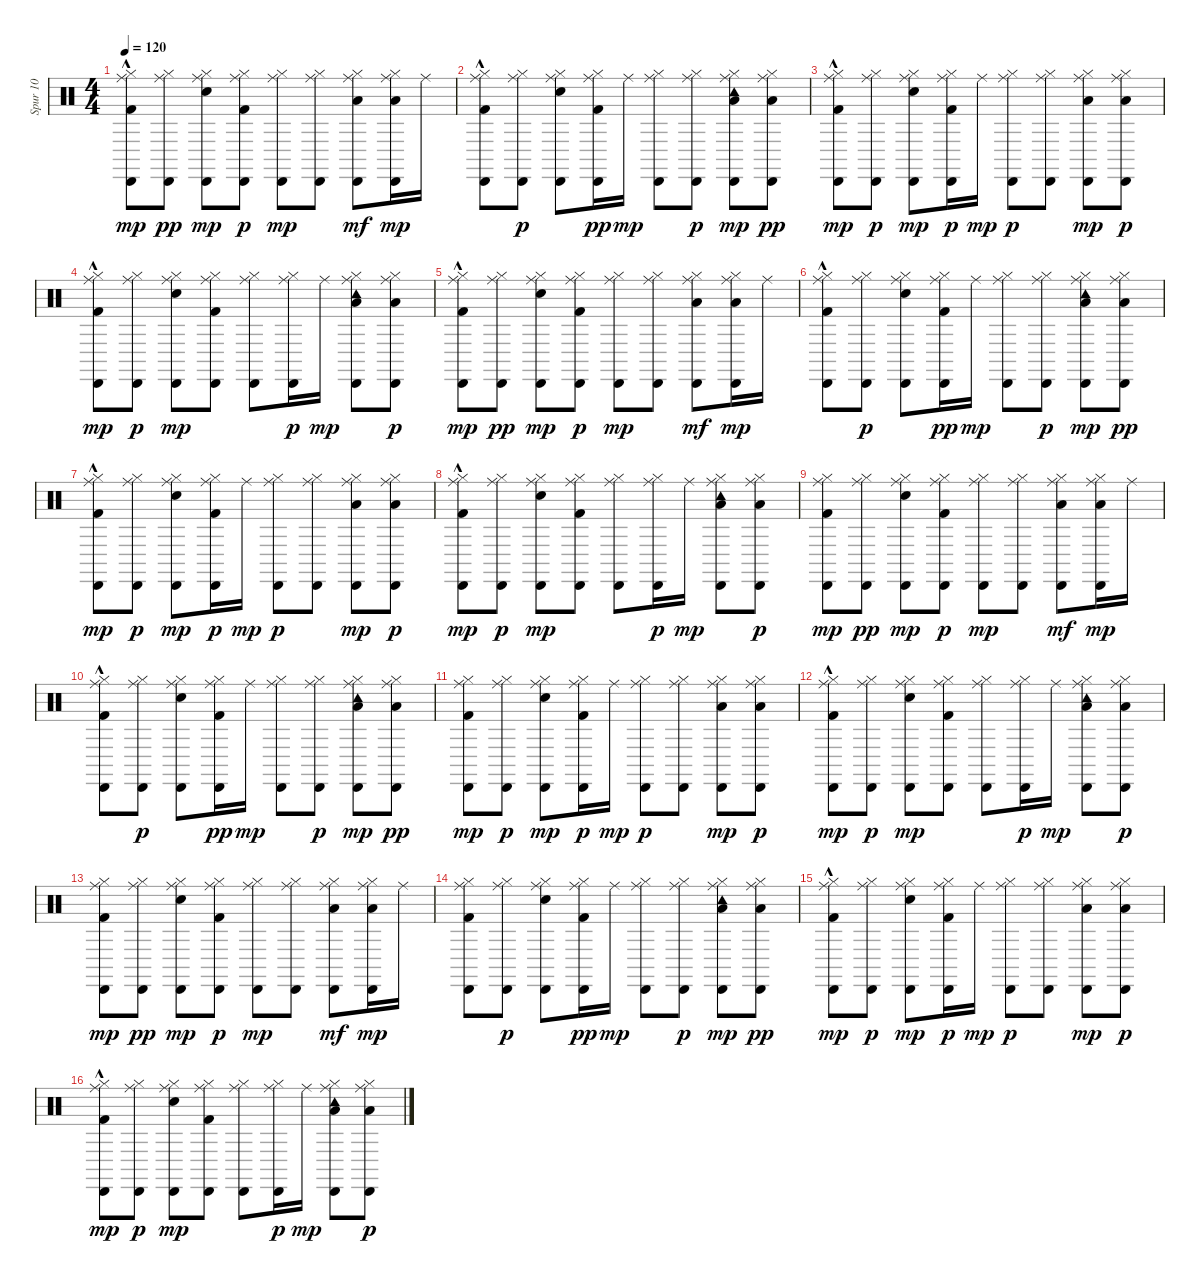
\track ("Spur 10" "Spur 10") {instrument percussion}
\staff {score}
\articulation defaults
\ts (4 4)
\tempo 120
\clef neutral
\ks c
("Kick (hit) 2"{hac} "Hi-Hat (closed)" "Cabasa (hit)" "Ride (middle)").8{dy mp} ("Hi-Hat (closed)" "Cabasa (hit)" "Ride (middle)").8{dy pp} ("Snare (hit) 2" "Hi-Hat (closed)" "Cabasa (hit)" "Ride (middle)").8{dy mp} ("Kick (hit) 2" "Hi-Hat (closed)" "Cabasa (hit)" "Ride (middle)").8{dy p} ("Hi-Hat (closed)" "Cabasa (hit)" "Ride (middle)").8{dy mp} ("Hi-Hat (closed)" "Cabasa (hit)" "Ride (middle)").8 ("Low Floor Tom (hit)" "Hi-Hat (closed)" "Cabasa (hit)" "Ride (middle)").8{dy mf} ("Low Floor Tom (hit)" "Hi-Hat (closed)" "Cabasa (hit)" "Ride (middle)").16{dy mp} "Ride (middle)".16 |
("Kick (hit) 2"{hac} "Hi-Hat (closed)" "Cabasa (hit)" "Ride (middle)").8 ("Hi-Hat (closed)" "Cabasa (hit)" "Ride (middle)").8{dy p} ("Snare (hit) 2" "Hi-Hat (closed)" "Cabasa (hit)" "Ride (middle)").8 ("Kick (hit) 2" "Hi-Hat (closed)" "Cabasa (hit)" "Ride (middle)").16{dy pp} "Ride (middle)".16{dy mp} ("Hi-Hat (closed)" "Cabasa (hit)" "Ride (middle)").8 ("Hi-Hat (closed)" "Cabasa (hit)" "Ride (middle)").8{dy p} ("Low Tom (hit)" "Hi-Hat (closed)" "Cabasa (hit)" "Tambourine (hit)" "Ride (middle)").8{dy mp} ("Low Tom (hit)" "Hi-Hat (closed)" "Cabasa (hit)" "Ride (middle)").8{dy pp} |
("Kick (hit) 2"{hac} "Hi-Hat (closed)" "Cabasa (hit)" "Ride (middle)").8{dy mp} ("Hi-Hat (closed)" "Cabasa (hit)" "Ride (middle)").8{dy p} ("Snare (hit) 2" "Hi-Hat (closed)" "Cabasa (hit)" "Ride (middle)").8{dy mp} ("Kick (hit) 2" "Hi-Hat (closed)" "Cabasa (hit)" "Ride (middle)").16{dy p} "Ride (middle)".16{dy mp} ("Hi-Hat (closed)" "Cabasa (hit)" "Ride (middle)").8{dy p} ("Hi-Hat (closed)" "Cabasa (hit)" "Ride (middle)").8 ("Low Floor Tom (hit)" "Hi-Hat (closed)" "Cabasa (hit)" "Ride (middle)").8{dy mp} ("Low Floor Tom (hit)" "Hi-Hat (closed)" "Cabasa (hit)" "Ride (middle)").8{dy p} |
("Kick (hit) 2"{hac} "Hi-Hat (closed)" "Cabasa (hit)" "Ride (middle)").8{dy mp} ("Hi-Hat (closed)" "Cabasa (hit)" "Ride (middle)").8{dy p} ("Snare (hit) 2" "Hi-Hat (closed)" "Cabasa (hit)" "Ride (middle)").8{dy mp} ("Kick (hit) 2" "Hi-Hat (closed)" "Cabasa (hit)" "Ride (middle)").8 ("Hi-Hat (closed)" "Cabasa (hit)" "Ride (middle)").8 ("Hi-Hat (closed)" "Cabasa (hit)" "Ride (middle)").16{dy p} "Ride (middle)".16{dy mp} ("Low Tom (hit)" "Hi-Hat (closed)" "Cabasa (hit)" "Tambourine (hit)" "Ride (middle)").8 ("Low Tom (hit)" "Hi-Hat (closed)" "Cabasa (hit)" "Ride (middle)").8{dy p} |
("Kick (hit) 2"{hac} "Hi-Hat (closed)" "Cabasa (hit)" "Ride (middle)").8{dy mp} ("Hi-Hat (closed)" "Cabasa (hit)" "Ride (middle)").8{dy pp} ("Snare (hit) 2" "Hi-Hat (closed)" "Cabasa (hit)" "Ride (middle)").8{dy mp} ("Kick (hit) 2" "Hi-Hat (closed)" "Cabasa (hit)" "Ride (middle)").8{dy p} ("Hi-Hat (closed)" "Cabasa (hit)" "Ride (middle)").8{dy mp} ("Hi-Hat (closed)" "Cabasa (hit)" "Ride (middle)").8 ("Low Floor Tom (hit)" "Hi-Hat (closed)" "Cabasa (hit)" "Ride (middle)").8{dy mf} ("Low Floor Tom (hit)" "Hi-Hat (closed)" "Cabasa (hit)" "Ride (middle)").16{dy mp} "Ride (middle)".16 |
("Kick (hit) 2"{hac} "Hi-Hat (closed)" "Cabasa (hit)" "Ride (middle)").8 ("Hi-Hat (closed)" "Cabasa (hit)" "Ride (middle)").8{dy p} ("Snare (hit) 2" "Hi-Hat (closed)" "Cabasa (hit)" "Ride (middle)").8 ("Kick (hit) 2" "Hi-Hat (closed)" "Cabasa (hit)" "Ride (middle)").16{dy pp} "Ride (middle)".16{dy mp} ("Hi-Hat (closed)" "Cabasa (hit)" "Ride (middle)").8 ("Hi-Hat (closed)" "Cabasa (hit)" "Ride (middle)").8{dy p} ("Low Tom (hit)" "Hi-Hat (closed)" "Cabasa (hit)" "Tambourine (hit)" "Ride (middle)").8{dy mp} ("Low Tom (hit)" "Hi-Hat (closed)" "Cabasa (hit)" "Ride (middle)").8{dy pp} |
("Kick (hit) 2"{hac} "Hi-Hat (closed)" "Cabasa (hit)" "Ride (middle)").8{dy mp} ("Hi-Hat (closed)" "Cabasa (hit)" "Ride (middle)").8{dy p} ("Snare (hit) 2" "Hi-Hat (closed)" "Cabasa (hit)" "Ride (middle)").8{dy mp} ("Kick (hit) 2" "Hi-Hat (closed)" "Cabasa (hit)" "Ride (middle)").16{dy p} "Ride (middle)".16{dy mp} ("Hi-Hat (closed)" "Cabasa (hit)" "Ride (middle)").8{dy p} ("Hi-Hat (closed)" "Cabasa (hit)" "Ride (middle)").8 ("Low Floor Tom (hit)" "Hi-Hat (closed)" "Cabasa (hit)" "Ride (middle)").8{dy mp} ("Low Floor Tom (hit)" "Hi-Hat (closed)" "Cabasa (hit)" "Ride (middle)").8{dy p} |
("Kick (hit) 2"{hac} "Hi-Hat (closed)" "Cabasa (hit)" "Ride (middle)").8{dy mp} ("Hi-Hat (closed)" "Cabasa (hit)" "Ride (middle)").8{dy p} ("Snare (hit) 2" "Hi-Hat (closed)" "Cabasa (hit)" "Ride (middle)").8{dy mp} ("Kick (hit) 2" "Hi-Hat (closed)" "Cabasa (hit)" "Ride (middle)").8 ("Hi-Hat (closed)" "Cabasa (hit)" "Ride (middle)").8 ("Hi-Hat (closed)" "Cabasa (hit)" "Ride (middle)").16{dy p} "Ride (middle)".16{dy mp} ("Low Tom (hit)" "Hi-Hat (closed)" "Cabasa (hit)" "Tambourine (hit)" "Ride (middle)").8 ("Low Tom (hit)" "Hi-Hat (closed)" "Cabasa (hit)" "Ride (middle)").8{dy p} |
("Kick (hit) 2" "Hi-Hat (closed)" "Cabasa (hit)" "Ride (middle)").8{dy mp} ("Hi-Hat (closed)" "Cabasa (hit)" "Ride (middle)").8{dy pp} ("Snare (hit) 2" "Hi-Hat (closed)" "Cabasa (hit)" "Ride (middle)").8{dy mp} ("Kick (hit) 2" "Hi-Hat (closed)" "Cabasa (hit)" "Ride (middle)").8{dy p} ("Hi-Hat (closed)" "Cabasa (hit)" "Ride (middle)").8{dy mp} ("Hi-Hat (closed)" "Cabasa (hit)" "Ride (middle)").8 ("Low Floor Tom (hit)" "Hi-Hat (closed)" "Cabasa (hit)" "Ride (middle)").8{dy mf} ("Low Floor Tom (hit)" "Hi-Hat (closed)" "Cabasa (hit)" "Ride (middle)").16{dy mp} "Ride (middle)".16 |
("Kick (hit) 2"{hac} "Hi-Hat (closed)" "Cabasa (hit)" "Ride (middle)").8 ("Hi-Hat (closed)" "Cabasa (hit)" "Ride (middle)").8{dy p} ("Snare (hit) 2" "Hi-Hat (closed)" "Cabasa (hit)" "Ride (middle)").8 ("Kick (hit) 2" "Hi-Hat (closed)" "Cabasa (hit)" "Ride (middle)").16{dy pp} "Ride (middle)".16{dy mp} ("Hi-Hat (closed)" "Cabasa (hit)" "Ride (middle)").8 ("Hi-Hat (closed)" "Cabasa (hit)" "Ride (middle)").8{dy p} ("Low Tom (hit)" "Hi-Hat (closed)" "Cabasa (hit)" "Tambourine (hit)" "Ride (middle)").8{dy mp} ("Low Tom (hit)" "Hi-Hat (closed)" "Cabasa (hit)" "Ride (middle)").8{dy pp} |
("Kick (hit) 2" "Hi-Hat (closed)" "Cabasa (hit)" "Ride (middle)").8{dy mp} ("Hi-Hat (closed)" "Cabasa (hit)" "Ride (middle)").8{dy p} ("Snare (hit) 2" "Hi-Hat (closed)" "Cabasa (hit)" "Ride (middle)").8{dy mp} ("Kick (hit) 2" "Hi-Hat (closed)" "Cabasa (hit)" "Ride (middle)").16{dy p} "Ride (middle)".16{dy mp} ("Hi-Hat (closed)" "Cabasa (hit)" "Ride (middle)").8{dy p} ("Hi-Hat (closed)" "Cabasa (hit)" "Ride (middle)").8 ("Low Floor Tom (hit)" "Hi-Hat (closed)" "Cabasa (hit)" "Ride (middle)").8{dy mp} ("Low Floor Tom (hit)" "Hi-Hat (closed)" "Cabasa (hit)" "Ride (middle)").8{dy p} |
("Kick (hit) 2"{hac} "Hi-Hat (closed)" "Cabasa (hit)" "Ride (middle)").8{dy mp} ("Hi-Hat (closed)" "Cabasa (hit)" "Ride (middle)").8{dy p} ("Snare (hit) 2" "Hi-Hat (closed)" "Cabasa (hit)" "Ride (middle)").8{dy mp} ("Kick (hit) 2" "Hi-Hat (closed)" "Cabasa (hit)" "Ride (middle)").8 ("Hi-Hat (closed)" "Cabasa (hit)" "Ride (middle)").8 ("Hi-Hat (closed)" "Cabasa (hit)" "Ride (middle)").16{dy p} "Ride (middle)".16{dy mp} ("Low Tom (hit)" "Hi-Hat (closed)" "Cabasa (hit)" "Tambourine (hit)" "Ride (middle)").8 ("Low Tom (hit)" "Hi-Hat (closed)" "Cabasa (hit)" "Ride (middle)").8{dy p} |
("Kick (hit) 2" "Hi-Hat (closed)" "Cabasa (hit)" "Ride (middle)").8{dy mp} ("Hi-Hat (closed)" "Cabasa (hit)" "Ride (middle)").8{dy pp} ("Snare (hit) 2" "Hi-Hat (closed)" "Cabasa (hit)" "Ride (middle)").8{dy mp} ("Kick (hit) 2" "Hi-Hat (closed)" "Cabasa (hit)" "Ride (middle)").8{dy p} ("Hi-Hat (closed)" "Cabasa (hit)" "Ride (middle)").8{dy mp} ("Hi-Hat (closed)" "Cabasa (hit)" "Ride (middle)").8 ("Low Floor Tom (hit)" "Hi-Hat (closed)" "Cabasa (hit)" "Ride (middle)").8{dy mf} ("Low Floor Tom (hit)" "Hi-Hat (closed)" "Cabasa (hit)" "Ride (middle)").16{dy mp} "Ride (middle)".16 |
("Kick (hit) 2" "Hi-Hat (closed)" "Cabasa (hit)" "Ride (middle)").8 ("Hi-Hat (closed)" "Cabasa (hit)" "Ride (middle)").8{dy p} ("Snare (hit) 2" "Hi-Hat (closed)" "Cabasa (hit)" "Ride (middle)").8 ("Kick (hit) 2" "Hi-Hat (closed)" "Cabasa (hit)" "Ride (middle)").16{dy pp} "Ride (middle)".16{dy mp} ("Hi-Hat (closed)" "Cabasa (hit)" "Ride (middle)").8 ("Hi-Hat (closed)" "Cabasa (hit)" "Ride (middle)").8{dy p} ("Low Tom (hit)" "Hi-Hat (closed)" "Cabasa (hit)" "Tambourine (hit)" "Ride (middle)").8{dy mp} ("Low Tom (hit)" "Hi-Hat (closed)" "Cabasa (hit)" "Ride (middle)").8{dy pp} |
("Kick (hit) 2"{hac} "Hi-Hat (closed)" "Cabasa (hit)" "Ride (middle)").8{dy mp} ("Hi-Hat (closed)" "Cabasa (hit)" "Ride (middle)").8{dy p} ("Snare (hit) 2" "Hi-Hat (closed)" "Cabasa (hit)" "Ride (middle)").8{dy mp} ("Kick (hit) 2" "Hi-Hat (closed)" "Cabasa (hit)" "Ride (middle)").16{dy p} "Ride (middle)".16{dy mp} ("Hi-Hat (closed)" "Cabasa (hit)" "Ride (middle)").8{dy p} ("Hi-Hat (closed)" "Cabasa (hit)" "Ride (middle)").8 ("Low Floor Tom (hit)" "Hi-Hat (closed)" "Cabasa (hit)" "Ride (middle)").8{dy mp} ("Low Floor Tom (hit)" "Hi-Hat (closed)" "Cabasa (hit)" "Ride (middle)").8{dy p} |
("Kick (hit) 2"{hac} "Hi-Hat (closed)" "Cabasa (hit)" "Ride (middle)").8{dy mp} ("Hi-Hat (closed)" "Cabasa (hit)" "Ride (middle)").8{dy p} ("Snare (hit) 2" "Hi-Hat (closed)" "Cabasa (hit)" "Ride (middle)").8{dy mp} ("Kick (hit) 2" "Hi-Hat (closed)" "Cabasa (hit)" "Ride (middle)").8 ("Hi-Hat (closed)" "Cabasa (hit)" "Ride (middle)").8 ("Hi-Hat (closed)" "Cabasa (hit)" "Ride (middle)").16{dy p} "Ride (middle)".16{dy mp} ("Low Tom (hit)" "Hi-Hat (closed)" "Cabasa (hit)" "Tambourine (hit)" "Ride (middle)").8 ("Low Tom (hit)" "Hi-Hat (closed)" "Cabasa (hit)" "Ride (middle)").8{dy p}
